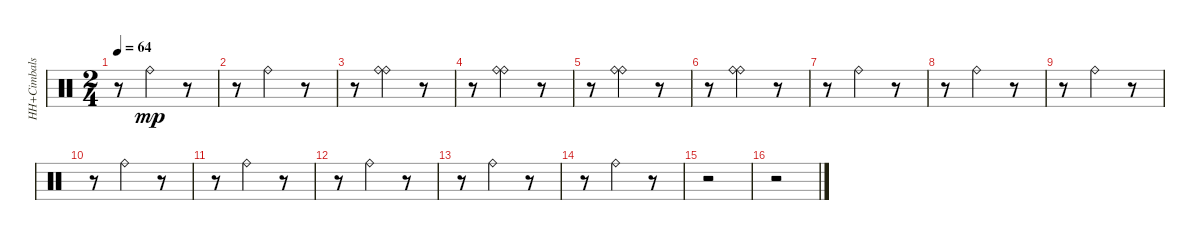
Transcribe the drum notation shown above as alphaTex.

\track ("HH+Cimbals" "HH+Cimbals") {instrument percussion}
\staff {score}
\articulation defaults
\ts (2 4)
\tempo 64
\clef neutral
\ks c
r.8{dy mp} "Ride (bell)".4 r.8 |
r.8 "Ride (bell)".4 r.8 |
r.8 ("Ride (bell)" "Ride (bell)").4 r.8 |
r.8 ("Ride (bell)" "Ride (bell)").4 r.8 |
r.8 ("Ride (bell)" "Ride (bell)").4 r.8 |
r.8 ("Ride (bell)" "Ride (bell)").4 r.8 |
r.8 "Ride (bell)".4 r.8 |
r.8 "Ride (bell)".4 r.8 |
r.8 "Ride (bell)".4 r.8 |
r.8 "Ride (bell)".4 r.8 |
r.8 "Ride (bell)".4 r.8 |
r.8 "Ride (bell)".4 r.8 |
r.8 "Ride (bell)".4 r.8 |
r.8 "Ride (bell)".4 r.8 |
r.2 |
r.2
